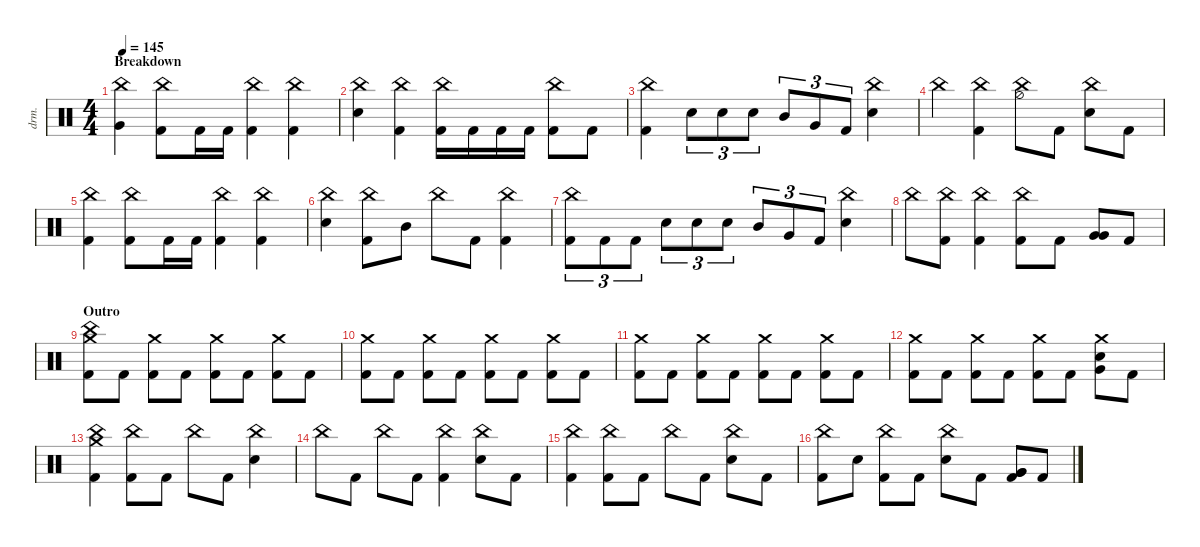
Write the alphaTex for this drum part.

\defaultSystemsLayout 4
\hideDynamics
\bracketExtendMode nobrackets
\track ("Drums - Mario" "drm.") {instrument percussion}
\staff {score}
\articulation defaults
\ts (4 4)
\section ("" "Breakdown")
\tempo 145
\clef neutral
\ks c
("Very Low Tom (hit)" "China (hit)").4{dy ff beam Down} ("Kick (hit) 2" "China (hit)").8{beam Down} "Kick (hit) 2".16{beam Down} "Kick (hit) 2".16{beam Down} ("Kick (hit) 2" "China (hit)").4{beam Down} ("Kick (hit) 2" "China (hit)").4{beam Down} |
("Snare (hit) 2" "China (hit)").4{beam Down} ("Kick (hit) 2" "China (hit)").4{beam Down} ("Kick (hit) 2" "China (hit)").16{beam Down} "Kick (hit) 2".16{beam Down} "Kick (hit) 2".16{beam Down} "Kick (hit) 2".16{beam Down} ("Kick (hit) 2" "China (hit)").8{beam Down} "Kick (hit) 2".8{beam Down} |
("Kick (hit) 2" "China (hit)").4{beam Down} "Snare (hit) 2".8{tu (3 2) beam Down} "Snare (hit) 2".8{tu (3 2) beam Down} "Snare (hit) 2".8{tu (3 2) beam Down} "Mid Tom (hit)".8{tu (3 2) beam Up} "Very Low Tom (hit)".8{tu (3 2) beam Up} "Kick (hit) 2".8{tu (3 2) beam Up} ("Snare (hit) 2" "China (hit)").4{beam Down} |
"China (hit)".4{beam Down} ("Kick (hit) 2" "China (hit)").4{beam Down} ("Hi-Hat (half)" "China (hit)").8{beam Down} "Kick (hit) 2".8{beam Down} ("Snare (hit) 2" "China (hit)").8{beam Down} "Kick (hit) 2".8{beam Down} |
("China (hit)" "Kick (hit) 2").4{beam Down} ("Kick (hit) 2" "China (hit)").8{beam Down} "Kick (hit) 2".16{beam Down} "Kick (hit) 2".16{beam Down} ("Kick (hit) 2" "China (hit)").4{beam Down} ("Kick (hit) 2" "China (hit)").4{beam Down} |
("Snare (hit) 2" "China (hit)").4{beam Down} ("Kick (hit) 2" "China (hit)").8{beam Down} "Mid Tom (hit)".8{beam Down} "China (hit)".8{beam Down} "Kick (hit) 2".8{beam Down} ("China (hit)" "Kick (hit) 2").4{beam Down} |
("China (hit)" "Kick (hit) 2").8{tu (3 2) beam Down} "Kick (hit) 2".8{tu (3 2) beam Down} "Kick (hit) 2".8{tu (3 2) beam Down} "Snare (hit) 2".8{tu (3 2) beam Down} "Snare (hit) 2".8{tu (3 2) beam Down} "Snare (hit) 2".8{tu (3 2) beam Down} "Mid Tom (hit)".8{tu (3 2) beam Up} "Very Low Tom (hit)".8{tu (3 2) beam Up} "Kick (hit) 2".8{tu (3 2) beam Up} ("Snare (hit) 2" "China (hit)").4{beam Down} |
"China (hit)".8{beam Down} ("China (hit)" "Kick (hit) 2").8{beam Down} ("Kick (hit) 2" "China (hit)").4{beam Down} ("China (hit)" "Kick (hit) 2").8{beam Down} "Kick (hit) 2".8{beam Down} ("Very Low Tom (hit)" "Very Low Tom (hit)").8{beam Up} "Kick (hit) 2".8{beam Up} |
\section ("" "Outro")
("China (hit)" "Kick (hit) 2" "Crash medium (hit)").8{beam Down} "Kick (hit) 2".8{beam Down} ("Kick (hit) 2" "Crash medium (hit)").8{beam Down} "Kick (hit) 2".8{beam Down} ("Kick (hit) 2" "Crash medium (hit)").8{beam Down} "Kick (hit) 2".8{beam Down} ("Kick (hit) 2" "Crash medium (hit)").8{beam Down} "Kick (hit) 2".8{beam Down} |
("Kick (hit) 2" "Crash medium (hit)").8{beam Down} "Kick (hit) 2".8{beam Down} ("Kick (hit) 2" "Crash medium (hit)").8{beam Down} "Kick (hit) 2".8{beam Down} ("Kick (hit) 2" "Crash medium (hit)").8{beam Down} "Kick (hit) 2".8{beam Down} ("Kick (hit) 2" "Crash medium (hit)").8{beam Down} "Kick (hit) 2".8{beam Down} |
("Kick (hit) 2" "Crash medium (hit)").8{beam Down} "Kick (hit) 2".8{beam Down} ("Kick (hit) 2" "Crash medium (hit)").8{beam Down} "Kick (hit) 2".8{beam Down} ("Kick (hit) 2" "Crash medium (hit)").8{beam Down} "Kick (hit) 2".8{beam Down} ("Kick (hit) 2" "Crash medium (hit)").8{beam Down} "Kick (hit) 2".8{beam Down} |
("Kick (hit) 2" "Crash medium (hit)").8{beam Down} "Kick (hit) 2".8{beam Down} ("Kick (hit) 2" "Crash medium (hit)").8{beam Down} "Kick (hit) 2".8{beam Down} ("Kick (hit) 2" "Crash medium (hit)").8{beam Down} "Kick (hit) 2".8{beam Down} ("Crash medium (hit)" "Snare (hit) 2" "Very Low Tom (hit)").8{beam Down} "Kick (hit) 2".8{beam Down} |
("China (hit)" "Crash medium (hit)" "Kick (hit) 2").4{beam Down} ("Kick (hit) 2" "China (hit)").8{beam Down} "Kick (hit) 2".8{beam Down} "China (hit)".8{beam Down} "Kick (hit) 2".8{beam Down} ("Snare (hit) 2" "China (hit)").4{beam Down} |
"China (hit)".8{beam Down} "Kick (hit) 2".8{beam Down} "China (hit)".8{beam Down} "Kick (hit) 2".8{beam Down} ("Kick (hit) 2" "China (hit)").4{beam Down} ("Snare (hit) 2" "China (hit)").8{beam Down} "Kick (hit) 2".8{beam Down} |
("Kick (hit) 2" "China (hit)").4{beam Down} ("Kick (hit) 2" "China (hit)").8{beam Down} "Kick (hit) 2".8{beam Down} "China (hit)".8{beam Down} "Kick (hit) 2".8{beam Down} ("China (hit)" "Snare (hit) 2").8{beam Down} "Kick (hit) 2".8{beam Down} |
("Kick (hit) 2" "China (hit)").8{beam Down} "Snare (hit) 2".8{beam Down} ("Kick (hit) 2" "China (hit)").8{beam Down} "Kick (hit) 2".8{beam Down} ("Snare (hit) 2" "China (hit)").8{beam Down} "Kick (hit) 2".8{beam Down} ("Kick (hit) 2" "Very Low Tom (hit)" "Very Low Tom (hit)").8{beam Up} "Kick (hit) 2".8{beam Up}
